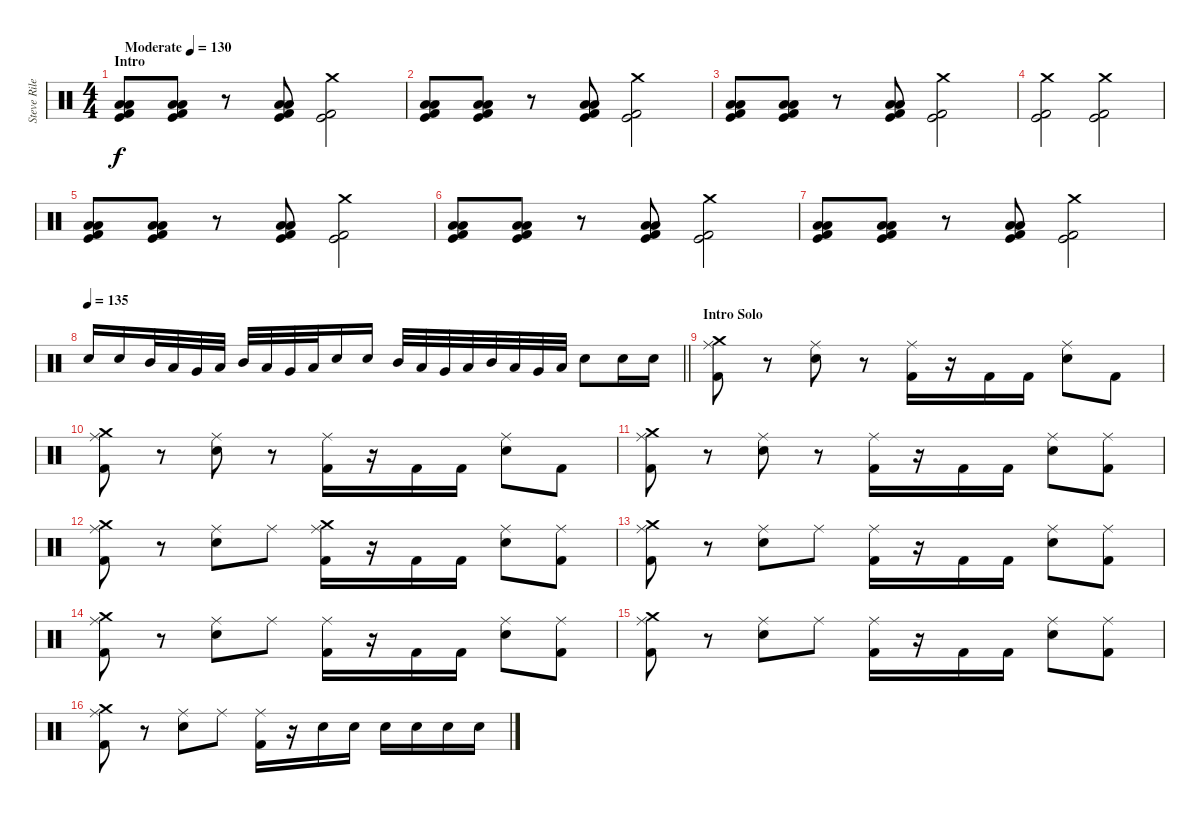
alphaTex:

\track ("Steve Riley" "Steve Rile") {instrument percussion}
\staff {score}
\articulation defaults
\ts (4 4)
\section ("" "Intro")
\tempo (130 "Moderate")
\clef neutral
\ks c
("Kick (hit)" "Kick (hit) 2" "Low Tom (hit)" "Low Floor Tom (hit)").8{dy f} ("Kick (hit) 2" "Kick (hit)" "Low Tom (hit)" "Low Floor Tom (hit)").8 r.8 ("Kick (hit) 2" "Kick (hit)" "Low Tom (hit)" "Low Floor Tom (hit)").8 ("Kick (hit) 2" "Kick (hit)" "Crash medium (hit)").2 |
("Kick (hit)" "Kick (hit) 2" "Low Tom (hit)" "Low Floor Tom (hit)").8 ("Kick (hit) 2" "Kick (hit)" "Low Tom (hit)" "Low Floor Tom (hit)").8 r.8 ("Kick (hit) 2" "Kick (hit)" "Low Tom (hit)" "Low Floor Tom (hit)").8 ("Kick (hit) 2" "Kick (hit)" "Crash medium (hit)").2 |
("Kick (hit)" "Kick (hit) 2" "Low Tom (hit)" "Low Floor Tom (hit)").8 ("Kick (hit) 2" "Kick (hit)" "Low Tom (hit)" "Low Floor Tom (hit)").8 r.8 ("Kick (hit) 2" "Kick (hit)" "Low Tom (hit)" "Low Floor Tom (hit)").8 ("Kick (hit) 2" "Kick (hit)" "Crash medium (hit)").2 |
("Kick (hit) 2" "Kick (hit)" "Crash medium (hit)").2 ("Kick (hit) 2" "Kick (hit)" "Crash medium (hit)").2 |
("Kick (hit)" "Kick (hit) 2" "Low Tom (hit)" "Low Floor Tom (hit)").8 ("Kick (hit) 2" "Kick (hit)" "Low Tom (hit)" "Low Floor Tom (hit)").8 r.8 ("Kick (hit) 2" "Kick (hit)" "Low Tom (hit)" "Low Floor Tom (hit)").8 ("Kick (hit) 2" "Kick (hit)" "Crash medium (hit)").2 |
("Kick (hit)" "Kick (hit) 2" "Low Tom (hit)" "Low Floor Tom (hit)").8 ("Kick (hit) 2" "Kick (hit)" "Low Tom (hit)" "Low Floor Tom (hit)").8 r.8 ("Kick (hit) 2" "Kick (hit)" "Low Tom (hit)" "Low Floor Tom (hit)").8 ("Kick (hit) 2" "Kick (hit)" "Crash medium (hit)").2 |
("Kick (hit)" "Kick (hit) 2" "Low Tom (hit)" "Low Floor Tom (hit)").8 ("Kick (hit) 2" "Kick (hit)" "Low Tom (hit)" "Low Floor Tom (hit)").8 r.8 ("Kick (hit) 2" "Kick (hit)" "Low Tom (hit)" "Low Floor Tom (hit)").8 ("Kick (hit) 2" "Kick (hit)" "Crash medium (hit)").2 |
\tempo 135
\barLineRight lightlight "Snare (hit) 2".16 "Snare (hit) 2".16 "Mid Tom (hit)".32 "Low Tom (hit)".32 "Very Low Tom (hit)".32 "Low Floor Tom (hit)".32 "Mid Tom (hit)".32 "Low Tom (hit)".32 "Very Low Tom (hit)".32 "Low Floor Tom (hit)".32 "Snare (hit) 2".16 "Snare (hit) 2".16 "Mid Tom (hit)".32 "Low Tom (hit)".32 "Very Low Tom (hit)".32 "Low Floor Tom (hit)".32 "Mid Tom (hit)".32 "Low Tom (hit)".32 "Very Low Tom (hit)".32 "Low Floor Tom (hit)".32 "Snare (hit) 2".8 "Snare (hit) 2".16 "Snare (hit) 2".16
|
\section ("" "Intro Solo")
("Crash medium (hit)" "Ride (middle)" "Kick (hit) 2").8 r.8 ("Ride (middle)" "Snare (hit) 2").8 r.8 ("Ride (middle)" "Kick (hit) 2").16 r.16 "Kick (hit) 2".16 "Kick (hit) 2".16 ("Ride (middle)" "Snare (hit) 2").8 "Kick (hit) 2".8 |
("Crash medium (hit)" "Ride (middle)" "Kick (hit) 2").8 r.8 ("Ride (middle)" "Snare (hit) 2").8 r.8 ("Ride (middle)" "Kick (hit) 2").16 r.16 "Kick (hit) 2".16 "Kick (hit) 2".16 ("Ride (middle)" "Snare (hit) 2").8 "Kick (hit) 2".8 |
("Crash medium (hit)" "Ride (middle)" "Kick (hit) 2").8 r.8 ("Ride (middle)" "Snare (hit) 2").8 r.8 ("Ride (middle)" "Kick (hit) 2").16 r.16 "Kick (hit) 2".16 "Kick (hit) 2".16 ("Ride (middle)" "Snare (hit) 2").8 ("Ride (middle)" "Kick (hit) 2").8 |
("Crash medium (hit)" "Ride (middle)" "Kick (hit) 2").8 r.8 ("Ride (middle)" "Snare (hit) 2").8 "Ride (middle)".8 ("Crash medium (hit)" "Ride (middle)" "Kick (hit) 2").16 r.16 "Kick (hit) 2".16 "Kick (hit) 2".16 ("Ride (middle)" "Snare (hit) 2").8 ("Ride (middle)" "Kick (hit) 2").8 |
("Crash medium (hit)" "Ride (middle)" "Kick (hit) 2").8 r.8 ("Ride (middle)" "Snare (hit) 2").8 "Ride (middle)".8 ("Ride (middle)" "Kick (hit) 2").16 r.16 "Kick (hit) 2".16 "Kick (hit) 2".16 ("Ride (middle)" "Snare (hit) 2").8 ("Ride (middle)" "Kick (hit) 2").8 |
("Crash medium (hit)" "Ride (middle)" "Kick (hit) 2").8 r.8 ("Ride (middle)" "Snare (hit) 2").8 "Ride (middle)".8 ("Ride (middle)" "Kick (hit) 2").16 r.16 "Kick (hit) 2".16 "Kick (hit) 2".16 ("Ride (middle)" "Snare (hit) 2").8 ("Ride (middle)" "Kick (hit) 2").8 |
("Crash medium (hit)" "Ride (middle)" "Kick (hit) 2").8 r.8 ("Ride (middle)" "Snare (hit) 2").8 "Ride (middle)".8 ("Ride (middle)" "Kick (hit) 2").16 r.16 "Kick (hit) 2".16 "Kick (hit) 2".16 ("Ride (middle)" "Snare (hit) 2").8 ("Ride (middle)" "Kick (hit) 2").8 |
("Crash medium (hit)" "Ride (middle)" "Kick (hit) 2").8 r.8 ("Ride (middle)" "Snare (hit) 2").8 "Ride (middle)".8 ("Ride (middle)" "Kick (hit) 2").16 r.16 "Snare (hit) 2".16 "Snare (hit) 2".16 "Snare (hit) 2".16 "Snare (hit) 2".16 "Snare (hit) 2".16 "Snare (hit) 2".16
